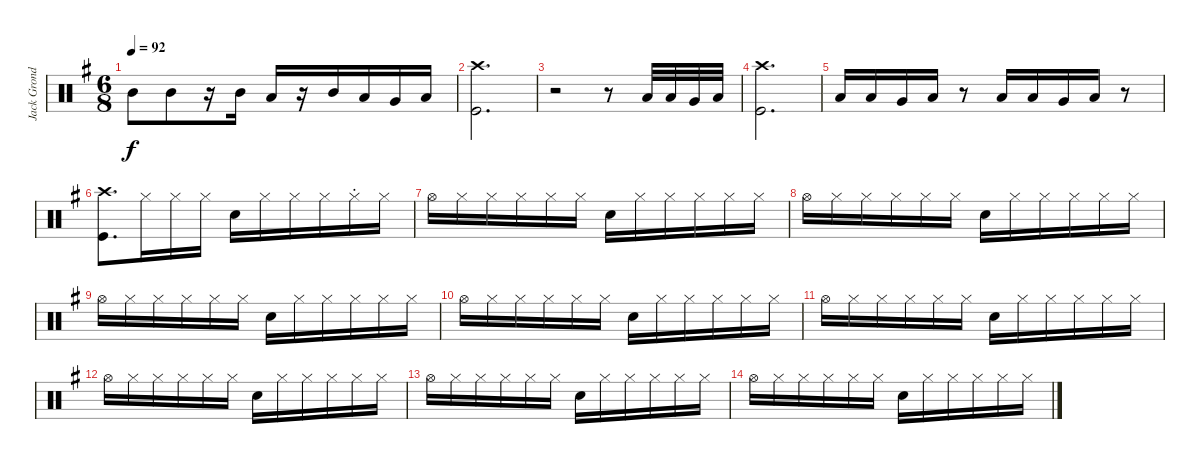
\track ("Jack Grondin Drums" "Jack Grond") {instrument percussion}
\staff {score}
\articulation defaults
\ts (6 8)
\tempo 92
\clef neutral
\ks g "Mid Tom (hit)".8{dy f} "Mid Tom (hit)".8
r.16 "Mid Tom (hit)".16 "Low Tom (hit)".16 r.16 "Mid Tom (hit)".16 "Low Tom (hit)".16 "Very Low Tom (hit)".16 "Low Floor Tom (hit)".16 |
("Crash high (hit)" "Kick (hit)").2{d} |
r.2 r.8 "Low Tom (hit)".32 "Low Tom (hit)".32 "Very Low Tom (hit)".32 "Low Floor Tom (hit)".32 |
("Crash high (hit)" "Kick (hit)").2{d} |
"Low Tom (hit)".16 "Low Tom (hit)".16 "Very Low Tom (hit)".16 "Low Floor Tom (hit)".16 r.8 "Low Tom (hit)".16 "Low Tom (hit)".16 "Very Low Tom (hit)".16 "Low Floor Tom (hit)".16 r.8 |
("Crash high (hit)" "Kick (hit)").8{d} "Hi-Hat (closed)".16 "Hi-Hat (closed)".16 "Hi-Hat (closed)".16 "Snare (hit) 2".16 "Hi-Hat (closed)".16 "Hi-Hat (closed)".16 "Hi-Hat (closed)".16 "Hi-Hat (closed)"{st}.16 "Hi-Hat (closed)".16 |
"Hi-Hat (open)".16 "Hi-Hat (closed)".16 "Hi-Hat (closed)".16 "Hi-Hat (closed)".16 "Hi-Hat (closed)".16 "Hi-Hat (closed)".16 "Snare (hit) 2".16 "Hi-Hat (closed)".16 "Hi-Hat (closed)".16 "Hi-Hat (closed)".16 "Hi-Hat (closed)".16 "Hi-Hat (closed)".16 |
"Hi-Hat (open)".16 "Hi-Hat (closed)".16 "Hi-Hat (closed)".16 "Hi-Hat (closed)".16 "Hi-Hat (closed)".16 "Hi-Hat (closed)".16 "Snare (hit) 2".16 "Hi-Hat (closed)".16 "Hi-Hat (closed)".16 "Hi-Hat (closed)".16 "Hi-Hat (closed)".16 "Hi-Hat (closed)".16 |
"Hi-Hat (open)".16 "Hi-Hat (closed)".16 "Hi-Hat (closed)".16 "Hi-Hat (closed)".16 "Hi-Hat (closed)".16 "Hi-Hat (closed)".16 "Snare (hit) 2".16 "Hi-Hat (closed)".16 "Hi-Hat (closed)".16 "Hi-Hat (closed)".16 "Hi-Hat (closed)".16 "Hi-Hat (closed)".16 |
"Hi-Hat (open)".16 "Hi-Hat (closed)".16 "Hi-Hat (closed)".16 "Hi-Hat (closed)".16 "Hi-Hat (closed)".16 "Hi-Hat (closed)".16 "Snare (hit) 2".16 "Hi-Hat (closed)".16 "Hi-Hat (closed)".16 "Hi-Hat (closed)".16 "Hi-Hat (closed)".16 "Hi-Hat (closed)".16 |
"Hi-Hat (open)".16 "Hi-Hat (closed)".16 "Hi-Hat (closed)".16 "Hi-Hat (closed)".16 "Hi-Hat (closed)".16 "Hi-Hat (closed)".16 "Snare (hit) 2".16 "Hi-Hat (closed)".16 "Hi-Hat (closed)".16 "Hi-Hat (closed)".16 "Hi-Hat (closed)".16 "Hi-Hat (closed)".16 |
"Hi-Hat (open)".16 "Hi-Hat (closed)".16 "Hi-Hat (closed)".16 "Hi-Hat (closed)".16 "Hi-Hat (closed)".16 "Hi-Hat (closed)".16 "Snare (hit) 2".16 "Hi-Hat (closed)".16 "Hi-Hat (closed)".16 "Hi-Hat (closed)".16 "Hi-Hat (closed)".16 "Hi-Hat (closed)".16 |
"Hi-Hat (open)".16 "Hi-Hat (closed)".16 "Hi-Hat (closed)".16 "Hi-Hat (closed)".16 "Hi-Hat (closed)".16 "Hi-Hat (closed)".16 "Snare (hit) 2".16 "Hi-Hat (closed)".16 "Hi-Hat (closed)".16 "Hi-Hat (closed)".16 "Hi-Hat (closed)".16 "Hi-Hat (closed)".16 |
"Hi-Hat (open)".16 "Hi-Hat (closed)".16 "Hi-Hat (closed)".16 "Hi-Hat (closed)".16 "Hi-Hat (closed)".16 "Hi-Hat (closed)".16 "Snare (hit) 2".16 "Hi-Hat (closed)".16 "Hi-Hat (closed)".16 "Hi-Hat (closed)".16 "Hi-Hat (closed)".16 "Hi-Hat (closed)".16
